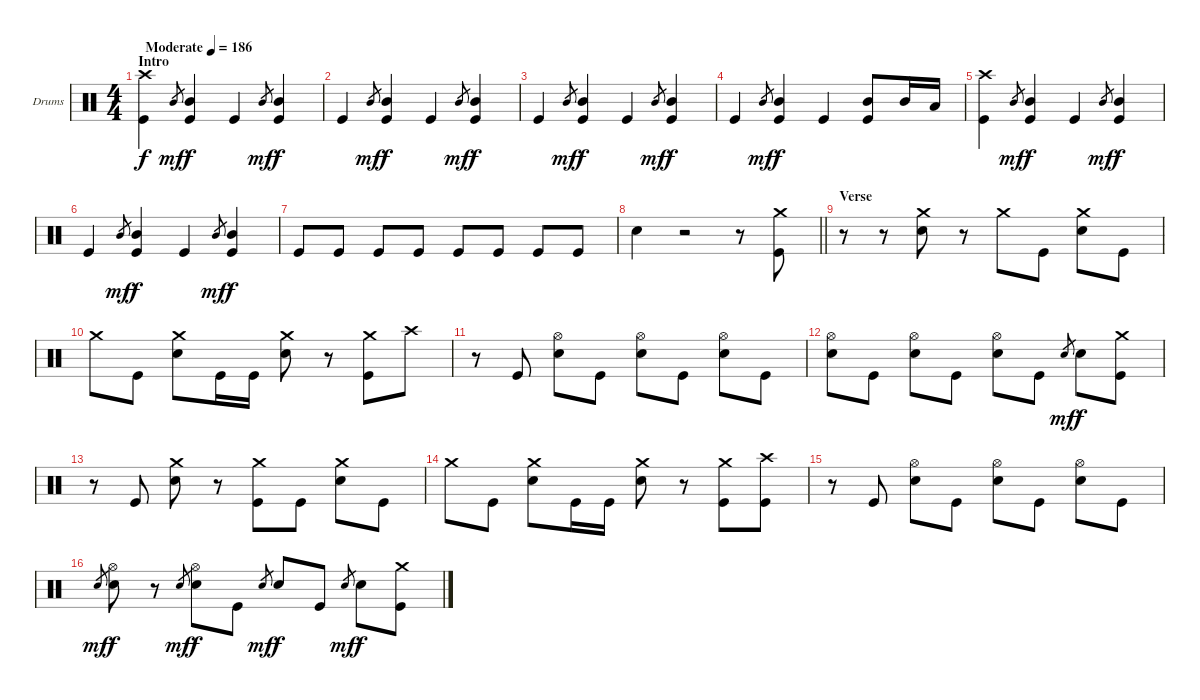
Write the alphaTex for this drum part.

\bracketExtendMode groupsimilarinstruments
\firstSystemTrackNameOrientation horizontal
\otherSystemsTrackNameOrientation horizontal
\track ("Drumkit" "Drums") {instrument percussion}
\staff {score}
\articulation defaults
\ts (4 4)
\beaming (8 2 2 2 2)
\section ("" "Intro")
\tempo (186 "Moderate")
\clef neutral
\scale
0.472222
\ks c
("Crash high (hit)" "Kick (hit)").4{dy f} "Mid Tom (hit)".8{gr dy mf} ("Mid Tom (hit)" "Kick (hit)").4{dy f} "Kick (hit)".4 "Mid Tom (hit)".8{gr dy mf} ("Mid Tom (hit)" "Kick (hit)").4{dy f} |
\scale
0.263889 "Kick (hit)".4 "Mid Tom (hit)".8{gr dy mf} ("Mid Tom (hit)" "Kick (hit)").4{dy f} "Kick (hit)".4 "Mid Tom (hit)".8{gr dy mf} ("Mid Tom (hit)" "Kick (hit)").4{dy f} |
\scale
0.263889 "Kick (hit)".4 "Mid Tom (hit)".8{gr dy mf} ("Mid Tom (hit)" "Kick (hit)").4{dy f} "Kick (hit)".4 "Mid Tom (hit)".8{gr dy mf} ("Mid Tom (hit)" "Kick (hit)").4{dy f} |
\scale
0.333333 "Kick (hit)".4 "Mid Tom (hit)".8{gr dy mf} ("Mid Tom (hit)" "Kick (hit)").4{dy f} "Kick (hit)".4 ("Mid Tom (hit)" "Kick (hit)").8 "Mid Tom (hit)".16 "Low Tom (hit)".16 |
\scale
0.333333 ("Crash high (hit)" "Kick (hit)").4 "Mid Tom (hit)".8{gr dy mf} ("Mid Tom (hit)" "Kick (hit)").4{dy f} "Kick (hit)".4 "Mid Tom (hit)".8{gr dy mf} ("Mid Tom (hit)" "Kick (hit)").4{dy f} |
\scale
0.333333 "Kick (hit)".4 "Mid Tom (hit)".8{gr dy mf} ("Mid Tom (hit)" "Kick (hit)").4{dy f} "Kick (hit)".4 "Mid Tom (hit)".8{gr dy mf} ("Mid Tom (hit)" "Kick (hit)").4{dy f} |
\scale
0.333333 "Kick (hit)".8 "Kick (hit)".8 "Kick (hit)".8 "Kick (hit)".8 "Kick (hit)".8 "Kick (hit)".8 "Kick (hit)".8 "Kick (hit)".8 |
\scale
0.333333
\barLineRight lightlight "Snare (hit) 2".4
r.2 r.8 ("Crash medium (hit)" "Kick (hit)").8 |
\section ("" "Verse")
\scale
0.333333 r.8 r.8 ("Crash medium (hit)" "Snare (hit) 2").8 r.8 "Crash medium (hit)".8 "Kick (hit)".8 ("Crash medium (hit)" "Snare (hit) 2").8 "Kick (hit)".8 |
\scale
0.333333 "Crash medium (hit)".8 "Kick (hit)".8 ("Crash medium (hit)" "Snare (hit) 2").8 "Kick (hit)".16 "Kick (hit)".16 ("Crash medium (hit)" "Snare (hit) 2").8 r.8 ("Crash medium (hit)" "Kick (hit)").8 "Crash high (hit)".8 |
\scale
0.333333 r.8 "Kick (hit)".8 ("Hi-Hat (open)" "Snare (hit) 2").8 "Kick (hit)".8 ("Hi-Hat (open)" "Snare (hit) 2").8 "Kick (hit)".8 ("Hi-Hat (open)" "Snare (hit) 2").8 "Kick (hit)".8 |
\scale
0.333333 ("Hi-Hat (open)" "Snare (hit) 2").8 "Kick (hit)".8 ("Hi-Hat (open)" "Snare (hit) 2").8 "Kick (hit)".8 ("Hi-Hat (open)" "Snare (hit) 2").8 "Kick (hit)".8 "Snare (hit) 2".8{gr dy mf} "Snare (hit) 2".8{dy f} ("Crash medium (hit)" "Kick (hit)").8 |
\scale
0.333333 r.8 "Kick (hit)".8 ("Crash medium (hit)" "Snare (hit) 2").8 r.8 ("Crash medium (hit)" "Kick (hit)").8 "Kick (hit)".8 ("Crash medium (hit)" "Snare (hit) 2").8 "Kick (hit)".8 |
\scale
0.333333 "Crash medium (hit)".8 "Kick (hit)".8 ("Crash medium (hit)" "Snare (hit) 2").8 "Kick (hit)".16 "Kick (hit)".16 ("Crash medium (hit)" "Snare (hit) 2").8 r.8 ("Crash medium (hit)" "Kick (hit)").8 ("Crash high (hit)" "Kick (hit)").8 |
\scale
0.333333 r.8 "Kick (hit)".8 ("Hi-Hat (open)" "Snare (hit) 2").8 "Kick (hit)".8 ("Hi-Hat (open)" "Snare (hit) 2").8 "Kick (hit)".8 ("Hi-Hat (open)" "Snare (hit) 2").8 "Kick (hit)".8 |
\scale
0.333333 "Snare (hit) 2".8{gr dy mf} ("Hi-Hat (open)" "Snare (hit) 2").8{dy f} r.8 "Snare (hit) 2".8{gr dy mf} ("Hi-Hat (open)" "Snare (hit) 2").8{dy f} "Kick (hit)".8 "Snare (hit) 2".8{gr dy mf} "Snare (hit) 2".8{dy f} "Kick (hit)".8 "Snare (hit) 2".8{gr dy mf} "Snare (hit) 2".8{dy f} ("Crash medium (hit)" "Kick (hit)").8
